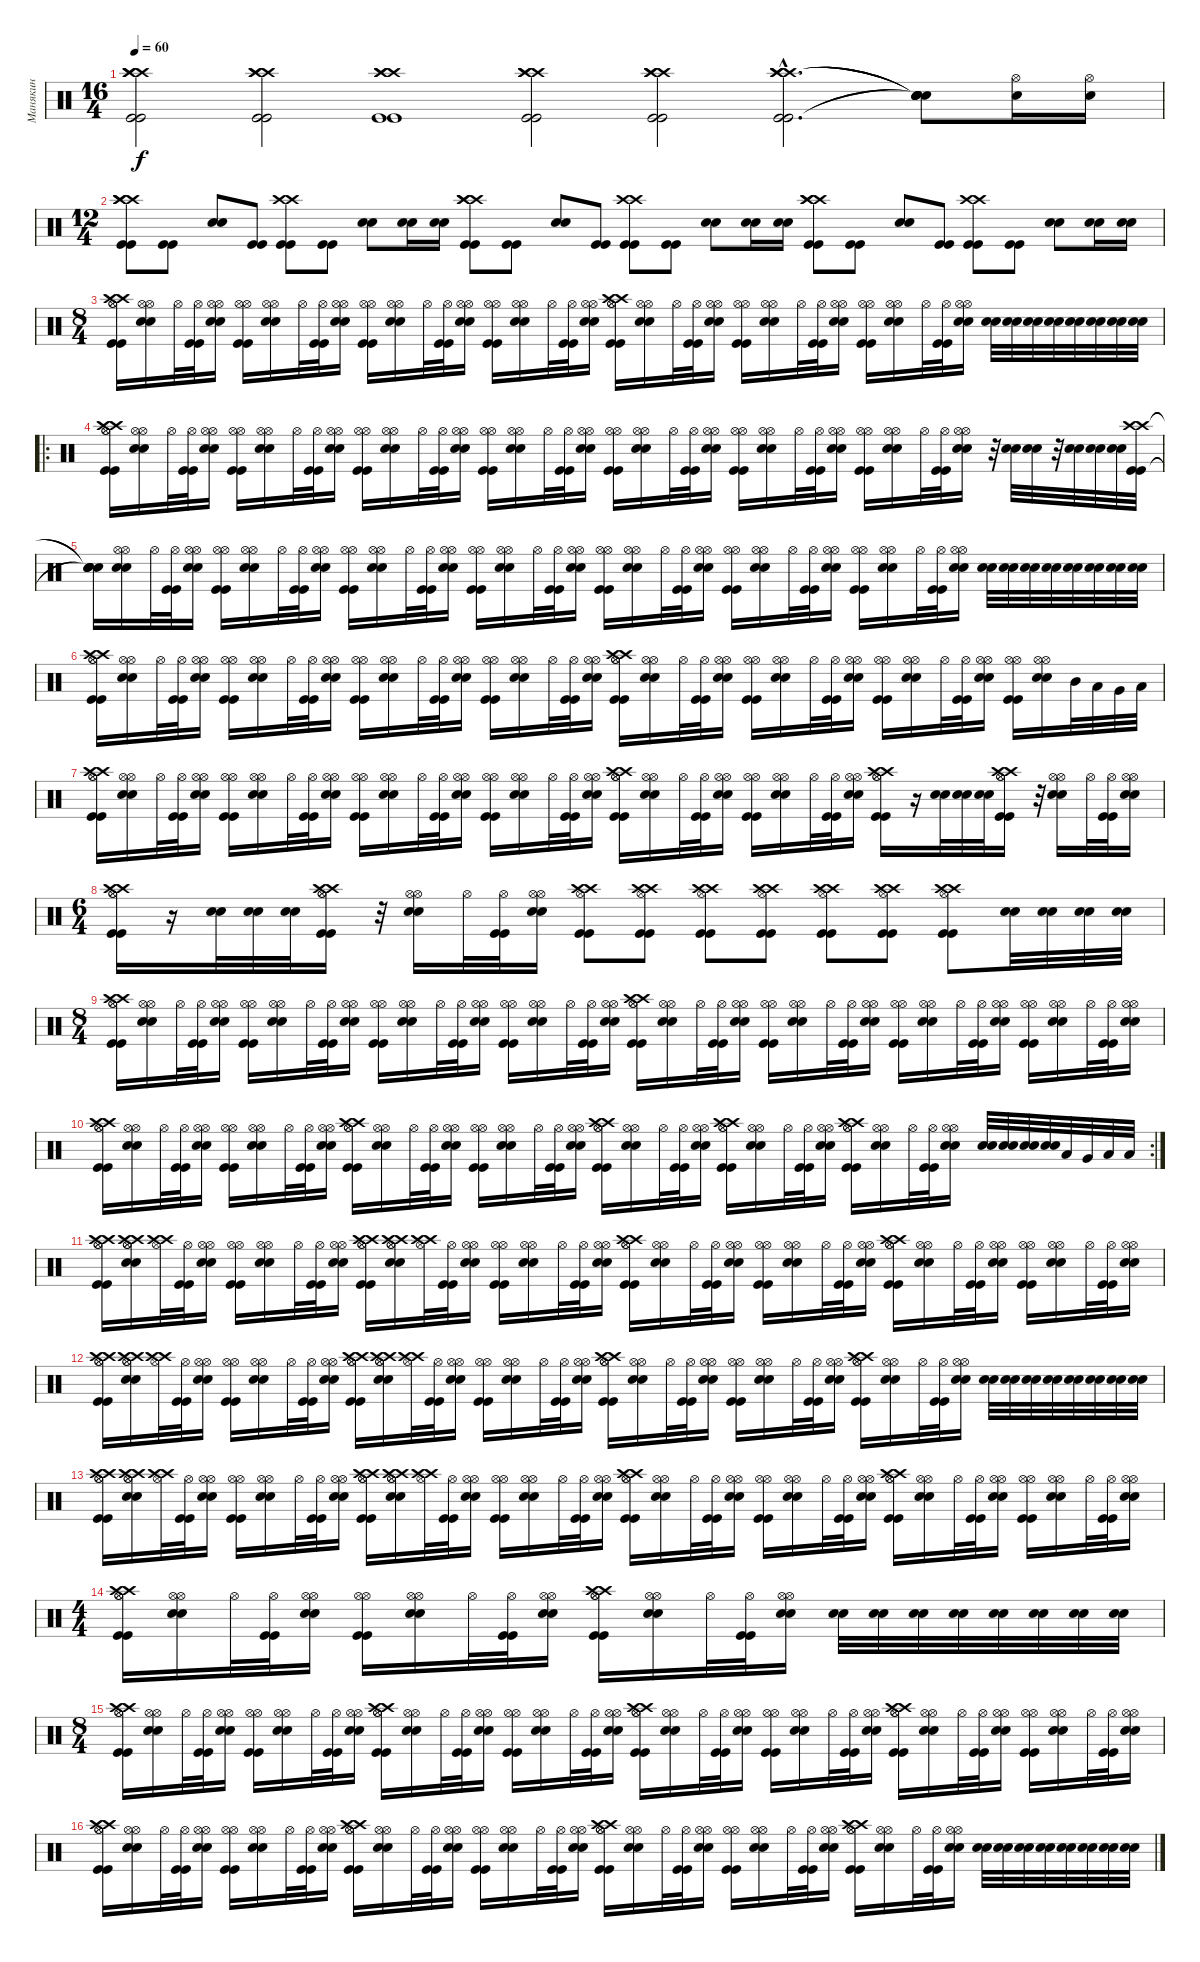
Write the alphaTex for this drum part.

\track ("Манякин" "Манякин") {instrument percussion}
\staff {score}
\articulation defaults
\ts (16 4)
\tempo 60
\clef neutral
\ks c
("Crash high (hit)" "Kick (hit)" "Kick (hit)" "Crash high (hit)" "Crash high (hit)").2{dy f} ("Crash high (hit)" "Kick (hit)" "Kick (hit)" "Crash high (hit)" "Crash high (hit)").2 ("Crash high (hit)" "Kick (hit)" "Kick (hit)" "Crash high (hit)" "Crash high (hit)").1 ("Crash high (hit)" "Kick (hit)" "Kick (hit)" "Crash high (hit)" "Crash high (hit)").2 ("Crash high (hit)" "Kick (hit)" "Kick (hit)" "Crash high (hit)" "Crash high (hit)").2 ("Crash high (hit)"{hac} "Kick (hit)"{hac} "Kick (hit)"{hac} "Crash high (hit)"{hac} "Crash high (hit)"{hac}).2{d} ("Snare (hit)"{t} "Snare (hit)"{t} "Snare (hit)"{t} "Snare (hit)"{t} "Snare (hit)"{t}).8 ("Electric Snare (hit)" "Hi-Hat (open)").16 ("Electric Snare (hit)" "Hi-Hat (open)").16 |
\ts (12 4)
("Kick (hit)" "Kick (hit)" "Crash high (hit)" "Crash high (hit)" "Crash high (hit)").8 ("Kick (hit)" "Kick (hit)").8 ("Electric Snare (hit)" "Electric Snare (hit)").8 ("Kick (hit)" "Kick (hit)").8 ("Kick (hit)" "Kick (hit)" "Crash high (hit)" "Crash high (hit)").8 ("Kick (hit)" "Kick (hit)").8 ("Electric Snare (hit)" "Electric Snare (hit)").8 ("Electric Snare (hit)" "Electric Snare (hit)").16 ("Electric Snare (hit)" "Electric Snare (hit)").16 ("Kick (hit)" "Kick (hit)" "Crash high (hit)" "Crash high (hit)" "Crash high (hit)").8 ("Kick (hit)" "Kick (hit)").8 ("Electric Snare (hit)" "Electric Snare (hit)").8 ("Kick (hit)" "Kick (hit)").8 ("Kick (hit)" "Kick (hit)" "Crash high (hit)" "Crash high (hit)").8 ("Kick (hit)" "Kick (hit)").8 ("Electric Snare (hit)" "Electric Snare (hit)").8 ("Electric Snare (hit)" "Electric Snare (hit)").16 ("Electric Snare (hit)" "Electric Snare (hit)").16 ("Kick (hit)" "Kick (hit)" "Crash high (hit)" "Crash high (hit)" "Crash high (hit)").8 ("Kick (hit)" "Kick (hit)").8 ("Electric Snare (hit)" "Electric Snare (hit)").8 ("Kick (hit)" "Kick (hit)").8 ("Kick (hit)" "Kick (hit)" "Crash high (hit)" "Crash high (hit)").8 ("Kick (hit)" "Kick (hit)").8 ("Electric Snare (hit)" "Electric Snare (hit)").8 ("Electric Snare (hit)" "Electric Snare (hit)").16 ("Electric Snare (hit)" "Electric Snare (hit)").16 |
\ts (8 4)
("Hi-Hat (open)" "Kick (hit)" "Kick (hit)" "Hi-Hat (open)" "Crash high (hit)" "Crash high (hit)").16 ("Hi-Hat (open)" "Electric Snare (hit)" "Electric Snare (hit)" "Hi-Hat (open)").16 "Hi-Hat (open)".32 ("Kick (hit)" "Kick (hit)" "Hi-Hat (open)").32 ("Hi-Hat (open)" "Electric Snare (hit)" "Electric Snare (hit)" "Hi-Hat (open)").16 ("Hi-Hat (open)" "Kick (hit)" "Kick (hit)" "Hi-Hat (open)").16 ("Hi-Hat (open)" "Electric Snare (hit)" "Electric Snare (hit)" "Hi-Hat (open)").16 "Hi-Hat (open)".32 ("Kick (hit)" "Kick (hit)" "Hi-Hat (open)").32 ("Hi-Hat (open)" "Electric Snare (hit)" "Electric Snare (hit)" "Hi-Hat (open)").16 ("Hi-Hat (open)" "Kick (hit)" "Kick (hit)" "Hi-Hat (open)").16 ("Hi-Hat (open)" "Electric Snare (hit)" "Electric Snare (hit)" "Hi-Hat (open)").16 "Hi-Hat (open)".32 ("Kick (hit)" "Kick (hit)" "Hi-Hat (open)").32 ("Hi-Hat (open)" "Electric Snare (hit)" "Electric Snare (hit)" "Hi-Hat (open)").16 ("Hi-Hat (open)" "Kick (hit)" "Kick (hit)" "Hi-Hat (open)").16 ("Hi-Hat (open)" "Electric Snare (hit)" "Electric Snare (hit)" "Hi-Hat (open)").16 "Hi-Hat (open)".32 ("Kick (hit)" "Kick (hit)" "Hi-Hat (open)").32 ("Hi-Hat (open)" "Electric Snare (hit)" "Electric Snare (hit)" "Hi-Hat (open)").16 ("Hi-Hat (open)" "Kick (hit)" "Kick (hit)" "Hi-Hat (open)" "Crash high (hit)" "Crash high (hit)").16 ("Hi-Hat (open)" "Electric Snare (hit)" "Electric Snare (hit)" "Hi-Hat (open)").16 "Hi-Hat (open)".32 ("Kick (hit)" "Kick (hit)" "Hi-Hat (open)").32 ("Hi-Hat (open)" "Electric Snare (hit)" "Electric Snare (hit)" "Hi-Hat (open)").16 ("Hi-Hat (open)" "Kick (hit)" "Kick (hit)" "Hi-Hat (open)").16 ("Hi-Hat (open)" "Electric Snare (hit)" "Electric Snare (hit)" "Hi-Hat (open)").16 "Hi-Hat (open)".32 ("Kick (hit)" "Kick (hit)" "Hi-Hat (open)").32 ("Hi-Hat (open)" "Electric Snare (hit)" "Electric Snare (hit)" "Hi-Hat (open)").16 ("Hi-Hat (open)" "Kick (hit)" "Kick (hit)" "Hi-Hat (open)").16 ("Hi-Hat (open)" "Electric Snare (hit)" "Electric Snare (hit)" "Hi-Hat (open)").16 "Hi-Hat (open)".32 ("Kick (hit)" "Kick (hit)" "Hi-Hat (open)").32 ("Hi-Hat (open)" "Electric Snare (hit)" "Electric Snare (hit)" "Hi-Hat (open)").16 ("Electric Snare (hit)" "Electric Snare (hit)").32 ("Electric Snare (hit)" "Electric Snare (hit)").32 ("Electric Snare (hit)" "Electric Snare (hit)").32 ("Electric Snare (hit)" "Electric Snare (hit)").32 ("Electric Snare (hit)" "Electric Snare (hit)").32 ("Electric Snare (hit)" "Electric Snare (hit)").32 ("Electric Snare (hit)" "Electric Snare (hit)").32 ("Electric Snare (hit)" "Electric Snare (hit)").32 |
\ro
("Hi-Hat (open)" "Kick (hit)" "Kick (hit)" "Hi-Hat (open)" "Crash high (hit)" "Crash high (hit)").16 ("Hi-Hat (open)" "Electric Snare (hit)" "Electric Snare (hit)" "Hi-Hat (open)").16 "Hi-Hat (open)".32 ("Kick (hit)" "Kick (hit)" "Hi-Hat (open)").32 ("Hi-Hat (open)" "Electric Snare (hit)" "Electric Snare (hit)" "Hi-Hat (open)").16 ("Hi-Hat (open)" "Kick (hit)" "Kick (hit)" "Hi-Hat (open)").16 ("Hi-Hat (open)" "Electric Snare (hit)" "Electric Snare (hit)" "Hi-Hat (open)").16 "Hi-Hat (open)".32 ("Kick (hit)" "Kick (hit)" "Hi-Hat (open)").32 ("Hi-Hat (open)" "Electric Snare (hit)" "Electric Snare (hit)" "Hi-Hat (open)").16 ("Hi-Hat (open)" "Kick (hit)" "Kick (hit)" "Hi-Hat (open)").16 ("Hi-Hat (open)" "Electric Snare (hit)" "Electric Snare (hit)" "Hi-Hat (open)").16 "Hi-Hat (open)".32 ("Kick (hit)" "Kick (hit)" "Hi-Hat (open)").32 ("Hi-Hat (open)" "Electric Snare (hit)" "Electric Snare (hit)" "Hi-Hat (open)").16 ("Hi-Hat (open)" "Kick (hit)" "Kick (hit)" "Hi-Hat (open)").16 ("Hi-Hat (open)" "Electric Snare (hit)" "Electric Snare (hit)" "Hi-Hat (open)").16 "Hi-Hat (open)".32 ("Kick (hit)" "Kick (hit)" "Hi-Hat (open)").32 ("Hi-Hat (open)" "Electric Snare (hit)" "Electric Snare (hit)" "Hi-Hat (open)").16 ("Hi-Hat (open)" "Kick (hit)" "Kick (hit)" "Hi-Hat (open)").16 ("Hi-Hat (open)" "Electric Snare (hit)" "Electric Snare (hit)" "Hi-Hat (open)").16 "Hi-Hat (open)".32 ("Kick (hit)" "Kick (hit)" "Hi-Hat (open)").32 ("Hi-Hat (open)" "Electric Snare (hit)" "Electric Snare (hit)" "Hi-Hat (open)").16 ("Hi-Hat (open)" "Kick (hit)" "Kick (hit)" "Hi-Hat (open)").16 ("Hi-Hat (open)" "Electric Snare (hit)" "Electric Snare (hit)" "Hi-Hat (open)").16 "Hi-Hat (open)".32 ("Kick (hit)" "Kick (hit)" "Hi-Hat (open)").32 ("Hi-Hat (open)" "Electric Snare (hit)" "Electric Snare (hit)" "Hi-Hat (open)").16 ("Hi-Hat (open)" "Kick (hit)" "Kick (hit)" "Hi-Hat (open)").16 ("Hi-Hat (open)" "Electric Snare (hit)" "Electric Snare (hit)" "Hi-Hat (open)").16 "Hi-Hat (open)".32 ("Kick (hit)" "Kick (hit)" "Hi-Hat (open)").32 ("Hi-Hat (open)" "Electric Snare (hit)" "Electric Snare (hit)" "Hi-Hat (open)").16 r.32 ("Electric Snare (hit)" "Electric Snare (hit)").32 ("Electric Snare (hit)" "Electric Snare (hit)").32 r.32 ("Electric Snare (hit)" "Electric Snare (hit)").32 ("Electric Snare (hit)" "Electric Snare (hit)").32 ("Electric Snare (hit)" "Electric Snare (hit)").32 ("Kick (hit)" "Kick (hit)" "Crash high (hit)" "Crash high (hit)").32 |
("Snare (hit)"{t} "Snare (hit)"{t} "Snare (hit)"{t} "Snare (hit)"{t}).16 ("Hi-Hat (open)" "Electric Snare (hit)" "Electric Snare (hit)" "Hi-Hat (open)").16 "Hi-Hat (open)".32 ("Kick (hit)" "Kick (hit)" "Hi-Hat (open)").32 ("Hi-Hat (open)" "Electric Snare (hit)" "Electric Snare (hit)" "Hi-Hat (open)").16 ("Hi-Hat (open)" "Kick (hit)" "Kick (hit)" "Hi-Hat (open)").16 ("Hi-Hat (open)" "Electric Snare (hit)" "Electric Snare (hit)" "Hi-Hat (open)").16 "Hi-Hat (open)".32 ("Kick (hit)" "Kick (hit)" "Hi-Hat (open)").32 ("Hi-Hat (open)" "Electric Snare (hit)" "Electric Snare (hit)" "Hi-Hat (open)").16 ("Hi-Hat (open)" "Kick (hit)" "Kick (hit)" "Hi-Hat (open)").16 ("Hi-Hat (open)" "Electric Snare (hit)" "Electric Snare (hit)" "Hi-Hat (open)").16 "Hi-Hat (open)".32 ("Kick (hit)" "Kick (hit)" "Hi-Hat (open)").32 ("Hi-Hat (open)" "Electric Snare (hit)" "Electric Snare (hit)" "Hi-Hat (open)").16 ("Hi-Hat (open)" "Kick (hit)" "Kick (hit)" "Hi-Hat (open)").16 ("Hi-Hat (open)" "Electric Snare (hit)" "Electric Snare (hit)" "Hi-Hat (open)").16 "Hi-Hat (open)".32 ("Kick (hit)" "Kick (hit)" "Hi-Hat (open)").32 ("Hi-Hat (open)" "Electric Snare (hit)" "Electric Snare (hit)" "Hi-Hat (open)").16 ("Hi-Hat (open)" "Kick (hit)" "Kick (hit)" "Hi-Hat (open)").16 ("Hi-Hat (open)" "Electric Snare (hit)" "Electric Snare (hit)" "Hi-Hat (open)").16 "Hi-Hat (open)".32 ("Kick (hit)" "Kick (hit)" "Hi-Hat (open)").32 ("Hi-Hat (open)" "Electric Snare (hit)" "Electric Snare (hit)" "Hi-Hat (open)").16 ("Hi-Hat (open)" "Kick (hit)" "Kick (hit)" "Hi-Hat (open)").16 ("Hi-Hat (open)" "Electric Snare (hit)" "Electric Snare (hit)" "Hi-Hat (open)").16 "Hi-Hat (open)".32 ("Kick (hit)" "Kick (hit)" "Hi-Hat (open)").32 ("Hi-Hat (open)" "Electric Snare (hit)" "Electric Snare (hit)" "Hi-Hat (open)").16 ("Hi-Hat (open)" "Kick (hit)" "Kick (hit)" "Hi-Hat (open)").16 ("Hi-Hat (open)" "Electric Snare (hit)" "Electric Snare (hit)" "Hi-Hat (open)").16 "Hi-Hat (open)".32 ("Kick (hit)" "Kick (hit)" "Hi-Hat (open)").32 ("Hi-Hat (open)" "Electric Snare (hit)" "Electric Snare (hit)" "Hi-Hat (open)").16 ("Electric Snare (hit)" "Electric Snare (hit)").32 ("Electric Snare (hit)" "Electric Snare (hit)").32 ("Electric Snare (hit)" "Electric Snare (hit)").32 ("Electric Snare (hit)" "Electric Snare (hit)").32 ("Electric Snare (hit)" "Electric Snare (hit)").32 ("Electric Snare (hit)" "Electric Snare (hit)").32 ("Electric Snare (hit)" "Electric Snare (hit)").32 ("Electric Snare (hit)" "Electric Snare (hit)").32 |
("Hi-Hat (open)" "Kick (hit)" "Kick (hit)" "Hi-Hat (open)" "Crash high (hit)" "Crash high (hit)").16 ("Hi-Hat (open)" "Electric Snare (hit)" "Electric Snare (hit)" "Hi-Hat (open)").16 "Hi-Hat (open)".32 ("Kick (hit)" "Kick (hit)" "Hi-Hat (open)").32 ("Hi-Hat (open)" "Electric Snare (hit)" "Electric Snare (hit)" "Hi-Hat (open)").16 ("Hi-Hat (open)" "Kick (hit)" "Kick (hit)" "Hi-Hat (open)").16 ("Hi-Hat (open)" "Electric Snare (hit)" "Electric Snare (hit)" "Hi-Hat (open)").16 "Hi-Hat (open)".32 ("Kick (hit)" "Kick (hit)" "Hi-Hat (open)").32 ("Hi-Hat (open)" "Electric Snare (hit)" "Electric Snare (hit)" "Hi-Hat (open)").16 ("Hi-Hat (open)" "Kick (hit)" "Kick (hit)" "Hi-Hat (open)").16 ("Hi-Hat (open)" "Electric Snare (hit)" "Electric Snare (hit)" "Hi-Hat (open)").16 "Hi-Hat (open)".32 ("Kick (hit)" "Kick (hit)" "Hi-Hat (open)").32 ("Hi-Hat (open)" "Electric Snare (hit)" "Electric Snare (hit)" "Hi-Hat (open)").16 ("Hi-Hat (open)" "Kick (hit)" "Kick (hit)" "Hi-Hat (open)").16 ("Hi-Hat (open)" "Electric Snare (hit)" "Electric Snare (hit)" "Hi-Hat (open)").16 "Hi-Hat (open)".32 ("Kick (hit)" "Kick (hit)" "Hi-Hat (open)").32 ("Hi-Hat (open)" "Electric Snare (hit)" "Electric Snare (hit)" "Hi-Hat (open)").16 ("Hi-Hat (open)" "Kick (hit)" "Kick (hit)" "Hi-Hat (open)" "Crash high (hit)" "Crash high (hit)").16 ("Hi-Hat (open)" "Electric Snare (hit)" "Electric Snare (hit)" "Hi-Hat (open)").16 "Hi-Hat (open)".32 ("Kick (hit)" "Kick (hit)" "Hi-Hat (open)").32 ("Hi-Hat (open)" "Electric Snare (hit)" "Electric Snare (hit)" "Hi-Hat (open)").16 ("Hi-Hat (open)" "Kick (hit)" "Kick (hit)" "Hi-Hat (open)").16 ("Hi-Hat (open)" "Electric Snare (hit)" "Electric Snare (hit)" "Hi-Hat (open)").16 "Hi-Hat (open)".32 ("Kick (hit)" "Kick (hit)" "Hi-Hat (open)").32 ("Hi-Hat (open)" "Electric Snare (hit)" "Electric Snare (hit)" "Hi-Hat (open)").16 ("Hi-Hat (open)" "Kick (hit)" "Kick (hit)" "Hi-Hat (open)").16 ("Hi-Hat (open)" "Electric Snare (hit)" "Electric Snare (hit)" "Hi-Hat (open)").16 "Hi-Hat (open)".32 ("Kick (hit)" "Kick (hit)" "Hi-Hat (open)").32 ("Hi-Hat (open)" "Electric Snare (hit)" "Electric Snare (hit)" "Hi-Hat (open)").16 ("Hi-Hat (open)" "Kick (hit)" "Kick (hit)" "Hi-Hat (open)").16 ("Hi-Hat (open)" "Electric Snare (hit)" "Electric Snare (hit)" "Hi-Hat (open)").16 "Mid Tom (hit)".32 "Low Tom (hit)".32 "Very Low Tom (hit)".32 "Low Floor Tom (hit)".32 |
("Hi-Hat (open)" "Kick (hit)" "Kick (hit)" "Hi-Hat (open)" "Crash high (hit)" "Crash high (hit)").16 ("Hi-Hat (open)" "Electric Snare (hit)" "Electric Snare (hit)" "Hi-Hat (open)").16 "Hi-Hat (open)".32 ("Kick (hit)" "Kick (hit)" "Hi-Hat (open)").32 ("Hi-Hat (open)" "Electric Snare (hit)" "Electric Snare (hit)" "Hi-Hat (open)").16 ("Hi-Hat (open)" "Kick (hit)" "Kick (hit)" "Hi-Hat (open)").16 ("Hi-Hat (open)" "Electric Snare (hit)" "Electric Snare (hit)" "Hi-Hat (open)").16 "Hi-Hat (open)".32 ("Kick (hit)" "Kick (hit)" "Hi-Hat (open)").32 ("Hi-Hat (open)" "Electric Snare (hit)" "Electric Snare (hit)" "Hi-Hat (open)").16 ("Hi-Hat (open)" "Kick (hit)" "Kick (hit)" "Hi-Hat (open)").16 ("Hi-Hat (open)" "Electric Snare (hit)" "Electric Snare (hit)" "Hi-Hat (open)").16 "Hi-Hat (open)".32 ("Kick (hit)" "Kick (hit)" "Hi-Hat (open)").32 ("Hi-Hat (open)" "Electric Snare (hit)" "Electric Snare (hit)" "Hi-Hat (open)").16 ("Hi-Hat (open)" "Kick (hit)" "Kick (hit)" "Hi-Hat (open)").16 ("Hi-Hat (open)" "Electric Snare (hit)" "Electric Snare (hit)" "Hi-Hat (open)").16 "Hi-Hat (open)".32 ("Kick (hit)" "Kick (hit)" "Hi-Hat (open)").32 ("Hi-Hat (open)" "Electric Snare (hit)" "Electric Snare (hit)" "Hi-Hat (open)").16 ("Hi-Hat (open)" "Kick (hit)" "Kick (hit)" "Hi-Hat (open)" "Crash high (hit)" "Crash high (hit)").16 ("Hi-Hat (open)" "Electric Snare (hit)" "Electric Snare (hit)" "Hi-Hat (open)").16 "Hi-Hat (open)".32 ("Kick (hit)" "Kick (hit)" "Hi-Hat (open)").32 ("Hi-Hat (open)" "Electric Snare (hit)" "Electric Snare (hit)" "Hi-Hat (open)").16 ("Hi-Hat (open)" "Kick (hit)" "Kick (hit)" "Hi-Hat (open)").16 ("Hi-Hat (open)" "Electric Snare (hit)" "Electric Snare (hit)" "Hi-Hat (open)").16 "Hi-Hat (open)".32 ("Kick (hit)" "Kick (hit)" "Hi-Hat (open)").32 ("Hi-Hat (open)" "Electric Snare (hit)" "Electric Snare (hit)" "Hi-Hat (open)").16 ("Hi-Hat (open)" "Kick (hit)" "Kick (hit)" "Hi-Hat (open)" "Crash high (hit)" "Crash high (hit)").16 r.16 ("Electric Snare (hit)" "Electric Snare (hit)").32 ("Electric Snare (hit)" "Electric Snare (hit)").32 ("Electric Snare (hit)" "Electric Snare (hit)").32 ("Hi-Hat (open)" "Kick (hit)" "Kick (hit)" "Hi-Hat (open)" "Crash high (hit)" "Crash high (hit)").16 r.32 ("Hi-Hat (open)" "Electric Snare (hit)" "Electric Snare (hit)" "Hi-Hat (open)").16 "Hi-Hat (open)".32 ("Kick (hit)" "Kick (hit)" "Hi-Hat (open)").32 ("Hi-Hat (open)" "Electric Snare (hit)" "Electric Snare (hit)" "Hi-Hat (open)").16 |
\ts (6 4)
("Hi-Hat (open)" "Kick (hit)" "Kick (hit)" "Hi-Hat (open)" "Crash high (hit)" "Crash high (hit)").16 r.16 ("Electric Snare (hit)" "Electric Snare (hit)").32 ("Electric Snare (hit)" "Electric Snare (hit)").32 ("Electric Snare (hit)" "Electric Snare (hit)").32 ("Hi-Hat (open)" "Kick (hit)" "Kick (hit)" "Hi-Hat (open)" "Crash high (hit)" "Crash high (hit)").16 r.32 ("Hi-Hat (open)" "Electric Snare (hit)" "Electric Snare (hit)" "Hi-Hat (open)").16 "Hi-Hat (open)".32 ("Kick (hit)" "Kick (hit)" "Hi-Hat (open)").32 ("Hi-Hat (open)" "Electric Snare (hit)" "Electric Snare (hit)" "Hi-Hat (open)").16 ("Crash high (hit)" "Crash high (hit)" "Kick (hit)" "Kick (hit)" "Hi-Hat (open)").8 ("Crash high (hit)" "Crash high (hit)" "Kick (hit)" "Kick (hit)" "Hi-Hat (open)").8 ("Crash high (hit)" "Crash high (hit)" "Kick (hit)" "Kick (hit)" "Hi-Hat (open)").8 ("Crash high (hit)" "Crash high (hit)" "Kick (hit)" "Kick (hit)" "Hi-Hat (open)").8 ("Crash high (hit)" "Crash high (hit)" "Kick (hit)" "Kick (hit)" "Hi-Hat (open)").8 ("Crash high (hit)" "Crash high (hit)" "Kick (hit)" "Kick (hit)" "Hi-Hat (open)").8 ("Crash high (hit)" "Crash high (hit)" "Kick (hit)" "Kick (hit)" "Hi-Hat (open)").8 ("Electric Snare (hit)" "Electric Snare (hit)").32 ("Electric Snare (hit)" "Electric Snare (hit)").32 ("Electric Snare (hit)" "Electric Snare (hit)").32 ("Electric Snare (hit)" "Electric Snare (hit)").32 |
\ts (8 4)
("Hi-Hat (open)" "Kick (hit)" "Kick (hit)" "Hi-Hat (open)" "Crash high (hit)" "Crash high (hit)").16 ("Hi-Hat (open)" "Electric Snare (hit)" "Electric Snare (hit)" "Hi-Hat (open)").16 "Hi-Hat (open)".32 ("Kick (hit)" "Kick (hit)" "Hi-Hat (open)").32 ("Hi-Hat (open)" "Electric Snare (hit)" "Electric Snare (hit)" "Hi-Hat (open)").16 ("Hi-Hat (open)" "Kick (hit)" "Kick (hit)" "Hi-Hat (open)").16 ("Hi-Hat (open)" "Electric Snare (hit)" "Electric Snare (hit)" "Hi-Hat (open)").16 "Hi-Hat (open)".32 ("Kick (hit)" "Kick (hit)" "Hi-Hat (open)").32 ("Hi-Hat (open)" "Electric Snare (hit)" "Electric Snare (hit)" "Hi-Hat (open)").16 ("Hi-Hat (open)" "Kick (hit)" "Kick (hit)" "Hi-Hat (open)").16 ("Hi-Hat (open)" "Electric Snare (hit)" "Electric Snare (hit)" "Hi-Hat (open)").16 "Hi-Hat (open)".32 ("Kick (hit)" "Kick (hit)" "Hi-Hat (open)").32 ("Hi-Hat (open)" "Electric Snare (hit)" "Electric Snare (hit)" "Hi-Hat (open)").16 ("Hi-Hat (open)" "Kick (hit)" "Kick (hit)" "Hi-Hat (open)").16 ("Hi-Hat (open)" "Electric Snare (hit)" "Electric Snare (hit)" "Hi-Hat (open)").16 "Hi-Hat (open)".32 ("Kick (hit)" "Kick (hit)" "Hi-Hat (open)").32 ("Hi-Hat (open)" "Electric Snare (hit)" "Electric Snare (hit)" "Hi-Hat (open)").16 ("Hi-Hat (open)" "Kick (hit)" "Kick (hit)" "Hi-Hat (open)" "Crash high (hit)" "Crash high (hit)").16 ("Hi-Hat (open)" "Electric Snare (hit)" "Electric Snare (hit)" "Hi-Hat (open)").16 "Hi-Hat (open)".32 ("Kick (hit)" "Kick (hit)" "Hi-Hat (open)").32 ("Hi-Hat (open)" "Electric Snare (hit)" "Electric Snare (hit)" "Hi-Hat (open)").16 ("Hi-Hat (open)" "Kick (hit)" "Kick (hit)" "Hi-Hat (open)").16 ("Hi-Hat (open)" "Electric Snare (hit)" "Electric Snare (hit)" "Hi-Hat (open)").16 "Hi-Hat (open)".32 ("Kick (hit)" "Kick (hit)" "Hi-Hat (open)").32 ("Hi-Hat (open)" "Electric Snare (hit)" "Electric Snare (hit)" "Hi-Hat (open)").16 ("Hi-Hat (open)" "Kick (hit)" "Kick (hit)" "Hi-Hat (open)").16 ("Hi-Hat (open)" "Electric Snare (hit)" "Electric Snare (hit)" "Hi-Hat (open)").16 "Hi-Hat (open)".32 ("Kick (hit)" "Kick (hit)" "Hi-Hat (open)").32 ("Hi-Hat (open)" "Electric Snare (hit)" "Electric Snare (hit)" "Hi-Hat (open)").16 ("Hi-Hat (open)" "Kick (hit)" "Kick (hit)" "Hi-Hat (open)").16 ("Hi-Hat (open)" "Electric Snare (hit)" "Electric Snare (hit)" "Hi-Hat (open)").16 "Hi-Hat (open)".32 ("Kick (hit)" "Kick (hit)" "Hi-Hat (open)").32 ("Hi-Hat (open)" "Electric Snare (hit)" "Electric Snare (hit)" "Hi-Hat (open)").16 |
\rc 2
("Hi-Hat (open)" "Kick (hit)" "Kick (hit)" "Hi-Hat (open)" "Crash high (hit)" "Crash high (hit)").16 ("Hi-Hat (open)" "Electric Snare (hit)" "Electric Snare (hit)" "Hi-Hat (open)").16 "Hi-Hat (open)".32 ("Kick (hit)" "Kick (hit)" "Hi-Hat (open)").32 ("Hi-Hat (open)" "Electric Snare (hit)" "Electric Snare (hit)" "Hi-Hat (open)").16 ("Hi-Hat (open)" "Kick (hit)" "Kick (hit)" "Hi-Hat (open)").16 ("Hi-Hat (open)" "Electric Snare (hit)" "Electric Snare (hit)" "Hi-Hat (open)").16 "Hi-Hat (open)".32 ("Kick (hit)" "Kick (hit)" "Hi-Hat (open)").32 ("Hi-Hat (open)" "Electric Snare (hit)" "Electric Snare (hit)" "Hi-Hat (open)").16 ("Hi-Hat (open)" "Kick (hit)" "Kick (hit)" "Hi-Hat (open)" "Crash high (hit)" "Crash high (hit)").16 ("Hi-Hat (open)" "Electric Snare (hit)" "Electric Snare (hit)" "Hi-Hat (open)").16 "Hi-Hat (open)".32 ("Kick (hit)" "Kick (hit)" "Hi-Hat (open)").32 ("Hi-Hat (open)" "Electric Snare (hit)" "Electric Snare (hit)" "Hi-Hat (open)").16 ("Hi-Hat (open)" "Kick (hit)" "Kick (hit)" "Hi-Hat (open)").16 ("Hi-Hat (open)" "Electric Snare (hit)" "Electric Snare (hit)" "Hi-Hat (open)").16 "Hi-Hat (open)".32 ("Kick (hit)" "Kick (hit)" "Hi-Hat (open)").32 ("Hi-Hat (open)" "Electric Snare (hit)" "Electric Snare (hit)" "Hi-Hat (open)").16 ("Hi-Hat (open)" "Kick (hit)" "Kick (hit)" "Hi-Hat (open)" "Crash high (hit)" "Crash high (hit)").16 ("Hi-Hat (open)" "Electric Snare (hit)" "Electric Snare (hit)" "Hi-Hat (open)").16 "Hi-Hat (open)".32 ("Kick (hit)" "Kick (hit)" "Hi-Hat (open)").32 ("Hi-Hat (open)" "Electric Snare (hit)" "Electric Snare (hit)" "Hi-Hat (open)").16 ("Hi-Hat (open)" "Kick (hit)" "Kick (hit)" "Hi-Hat (open)" "Crash high (hit)" "Crash high (hit)").16 ("Hi-Hat (open)" "Electric Snare (hit)" "Electric Snare (hit)" "Hi-Hat (open)").16 "Hi-Hat (open)".32 ("Kick (hit)" "Kick (hit)" "Hi-Hat (open)").32 ("Hi-Hat (open)" "Electric Snare (hit)" "Electric Snare (hit)" "Hi-Hat (open)").16 ("Hi-Hat (open)" "Kick (hit)" "Kick (hit)" "Hi-Hat (open)" "Crash high (hit)" "Crash high (hit)").16 ("Hi-Hat (open)" "Electric Snare (hit)" "Electric Snare (hit)" "Hi-Hat (open)").16 "Hi-Hat (open)".32 ("Kick (hit)" "Kick (hit)" "Hi-Hat (open)").32 ("Hi-Hat (open)" "Electric Snare (hit)" "Electric Snare (hit)" "Hi-Hat (open)").16 ("Electric Snare (hit)" "Electric Snare (hit)").32 ("Electric Snare (hit)" "Electric Snare (hit)").32 ("Electric Snare (hit)" "Electric Snare (hit)").32 ("Electric Snare (hit)" "Electric Snare (hit)").32 "Low Tom (hit)".32 "Very Low Tom (hit)".32 "Low Floor Tom (hit)".32 "Low Floor Tom (hit)".32 |
("Hi-Hat (open)" "Kick (hit)" "Kick (hit)" "Hi-Hat (open)" "Crash high (hit)" "Crash high (hit)").16 ("Hi-Hat (open)" "Electric Snare (hit)" "Electric Snare (hit)" "Hi-Hat (open)" "Crash high (hit)" "Crash high (hit)").16 ("Hi-Hat (open)" "Crash high (hit)" "Crash high (hit)").32 ("Kick (hit)" "Kick (hit)" "Hi-Hat (open)").32 ("Hi-Hat (open)" "Electric Snare (hit)" "Electric Snare (hit)" "Hi-Hat (open)").16 ("Hi-Hat (open)" "Kick (hit)" "Kick (hit)" "Hi-Hat (open)").16 ("Hi-Hat (open)" "Electric Snare (hit)" "Electric Snare (hit)" "Hi-Hat (open)").16 "Hi-Hat (open)".32 ("Kick (hit)" "Kick (hit)" "Hi-Hat (open)").32 ("Hi-Hat (open)" "Electric Snare (hit)" "Electric Snare (hit)" "Hi-Hat (open)").16 ("Hi-Hat (open)" "Kick (hit)" "Kick (hit)" "Hi-Hat (open)" "Crash high (hit)" "Crash high (hit)").16 ("Hi-Hat (open)" "Electric Snare (hit)" "Electric Snare (hit)" "Hi-Hat (open)" "Crash high (hit)" "Crash high (hit)").16 ("Hi-Hat (open)" "Crash high (hit)" "Crash high (hit)").32 ("Kick (hit)" "Kick (hit)" "Hi-Hat (open)").32 ("Hi-Hat (open)" "Electric Snare (hit)" "Electric Snare (hit)" "Hi-Hat (open)").16 ("Hi-Hat (open)" "Kick (hit)" "Kick (hit)" "Hi-Hat (open)").16 ("Hi-Hat (open)" "Electric Snare (hit)" "Electric Snare (hit)" "Hi-Hat (open)").16 "Hi-Hat (open)".32 ("Kick (hit)" "Kick (hit)" "Hi-Hat (open)").32 ("Hi-Hat (open)" "Electric Snare (hit)" "Electric Snare (hit)" "Hi-Hat (open)").16 ("Hi-Hat (open)" "Kick (hit)" "Kick (hit)" "Hi-Hat (open)" "Crash high (hit)" "Crash high (hit)").16 ("Hi-Hat (open)" "Electric Snare (hit)" "Electric Snare (hit)" "Hi-Hat (open)").16 "Hi-Hat (open)".32 ("Kick (hit)" "Kick (hit)" "Hi-Hat (open)").32 ("Hi-Hat (open)" "Electric Snare (hit)" "Electric Snare (hit)" "Hi-Hat (open)").16 ("Hi-Hat (open)" "Kick (hit)" "Kick (hit)" "Hi-Hat (open)").16 ("Hi-Hat (open)" "Electric Snare (hit)" "Electric Snare (hit)" "Hi-Hat (open)").16 "Hi-Hat (open)".32 ("Kick (hit)" "Kick (hit)" "Hi-Hat (open)").32 ("Hi-Hat (open)" "Electric Snare (hit)" "Electric Snare (hit)" "Hi-Hat (open)").16 ("Hi-Hat (open)" "Kick (hit)" "Kick (hit)" "Hi-Hat (open)" "Crash high (hit)" "Crash high (hit)").16 ("Hi-Hat (open)" "Electric Snare (hit)" "Electric Snare (hit)" "Hi-Hat (open)").16 "Hi-Hat (open)".32 ("Kick (hit)" "Kick (hit)" "Hi-Hat (open)").32 ("Hi-Hat (open)" "Electric Snare (hit)" "Electric Snare (hit)" "Hi-Hat (open)").16 ("Hi-Hat (open)" "Kick (hit)" "Kick (hit)" "Hi-Hat (open)").16 ("Hi-Hat (open)" "Electric Snare (hit)" "Electric Snare (hit)" "Hi-Hat (open)").16 "Hi-Hat (open)".32 ("Kick (hit)" "Kick (hit)" "Hi-Hat (open)").32 ("Hi-Hat (open)" "Electric Snare (hit)" "Electric Snare (hit)" "Hi-Hat (open)").16 |
("Hi-Hat (open)" "Kick (hit)" "Kick (hit)" "Hi-Hat (open)" "Crash high (hit)" "Crash high (hit)").16 ("Hi-Hat (open)" "Electric Snare (hit)" "Electric Snare (hit)" "Hi-Hat (open)" "Crash high (hit)" "Crash high (hit)").16 ("Hi-Hat (open)" "Crash high (hit)" "Crash high (hit)").32 ("Kick (hit)" "Kick (hit)" "Hi-Hat (open)").32 ("Hi-Hat (open)" "Electric Snare (hit)" "Electric Snare (hit)" "Hi-Hat (open)").16 ("Hi-Hat (open)" "Kick (hit)" "Kick (hit)" "Hi-Hat (open)").16 ("Hi-Hat (open)" "Electric Snare (hit)" "Electric Snare (hit)" "Hi-Hat (open)").16 "Hi-Hat (open)".32 ("Kick (hit)" "Kick (hit)" "Hi-Hat (open)").32 ("Hi-Hat (open)" "Electric Snare (hit)" "Electric Snare (hit)" "Hi-Hat (open)").16 ("Hi-Hat (open)" "Kick (hit)" "Kick (hit)" "Hi-Hat (open)" "Crash high (hit)" "Crash high (hit)").16 ("Hi-Hat (open)" "Electric Snare (hit)" "Electric Snare (hit)" "Hi-Hat (open)" "Crash high (hit)" "Crash high (hit)").16 ("Hi-Hat (open)" "Crash high (hit)" "Crash high (hit)").32 ("Kick (hit)" "Kick (hit)" "Hi-Hat (open)").32 ("Hi-Hat (open)" "Electric Snare (hit)" "Electric Snare (hit)" "Hi-Hat (open)").16 ("Hi-Hat (open)" "Kick (hit)" "Kick (hit)" "Hi-Hat (open)").16 ("Hi-Hat (open)" "Electric Snare (hit)" "Electric Snare (hit)" "Hi-Hat (open)").16 "Hi-Hat (open)".32 ("Kick (hit)" "Kick (hit)" "Hi-Hat (open)").32 ("Hi-Hat (open)" "Electric Snare (hit)" "Electric Snare (hit)" "Hi-Hat (open)").16 ("Hi-Hat (open)" "Kick (hit)" "Kick (hit)" "Hi-Hat (open)" "Crash high (hit)" "Crash high (hit)").16 ("Hi-Hat (open)" "Electric Snare (hit)" "Electric Snare (hit)" "Hi-Hat (open)").16 "Hi-Hat (open)".32 ("Kick (hit)" "Kick (hit)" "Hi-Hat (open)").32 ("Hi-Hat (open)" "Electric Snare (hit)" "Electric Snare (hit)" "Hi-Hat (open)").16 ("Hi-Hat (open)" "Kick (hit)" "Kick (hit)" "Hi-Hat (open)").16 ("Hi-Hat (open)" "Electric Snare (hit)" "Electric Snare (hit)" "Hi-Hat (open)").16 "Hi-Hat (open)".32 ("Kick (hit)" "Kick (hit)" "Hi-Hat (open)").32 ("Hi-Hat (open)" "Electric Snare (hit)" "Electric Snare (hit)" "Hi-Hat (open)").16 ("Hi-Hat (open)" "Kick (hit)" "Kick (hit)" "Hi-Hat (open)" "Crash high (hit)" "Crash high (hit)").16 ("Hi-Hat (open)" "Electric Snare (hit)" "Electric Snare (hit)" "Hi-Hat (open)").16 "Hi-Hat (open)".32 ("Kick (hit)" "Kick (hit)" "Hi-Hat (open)").32 ("Hi-Hat (open)" "Electric Snare (hit)" "Electric Snare (hit)" "Hi-Hat (open)").16 ("Electric Snare (hit)" "Electric Snare (hit)").32 ("Electric Snare (hit)" "Electric Snare (hit)").32 ("Electric Snare (hit)" "Electric Snare (hit)").32 ("Electric Snare (hit)" "Electric Snare (hit)").32 ("Electric Snare (hit)" "Electric Snare (hit)").32 ("Electric Snare (hit)" "Electric Snare (hit)").32 ("Electric Snare (hit)" "Electric Snare (hit)").32 ("Electric Snare (hit)" "Electric Snare (hit)").32 |
("Hi-Hat (open)" "Kick (hit)" "Kick (hit)" "Hi-Hat (open)" "Crash high (hit)" "Crash high (hit)").16 ("Hi-Hat (open)" "Electric Snare (hit)" "Electric Snare (hit)" "Hi-Hat (open)" "Crash high (hit)" "Crash high (hit)").16 ("Hi-Hat (open)" "Crash high (hit)" "Crash high (hit)").32 ("Kick (hit)" "Kick (hit)" "Hi-Hat (open)").32 ("Hi-Hat (open)" "Electric Snare (hit)" "Electric Snare (hit)" "Hi-Hat (open)").16 ("Hi-Hat (open)" "Kick (hit)" "Kick (hit)" "Hi-Hat (open)").16 ("Hi-Hat (open)" "Electric Snare (hit)" "Electric Snare (hit)" "Hi-Hat (open)").16 "Hi-Hat (open)".32 ("Kick (hit)" "Kick (hit)" "Hi-Hat (open)").32 ("Hi-Hat (open)" "Electric Snare (hit)" "Electric Snare (hit)" "Hi-Hat (open)").16 ("Hi-Hat (open)" "Kick (hit)" "Kick (hit)" "Hi-Hat (open)" "Crash high (hit)" "Crash high (hit)").16 ("Hi-Hat (open)" "Electric Snare (hit)" "Electric Snare (hit)" "Hi-Hat (open)" "Crash high (hit)" "Crash high (hit)").16 ("Hi-Hat (open)" "Crash high (hit)" "Crash high (hit)").32 ("Kick (hit)" "Kick (hit)" "Hi-Hat (open)").32 ("Hi-Hat (open)" "Electric Snare (hit)" "Electric Snare (hit)" "Hi-Hat (open)").16 ("Hi-Hat (open)" "Kick (hit)" "Kick (hit)" "Hi-Hat (open)").16 ("Hi-Hat (open)" "Electric Snare (hit)" "Electric Snare (hit)" "Hi-Hat (open)").16 "Hi-Hat (open)".32 ("Kick (hit)" "Kick (hit)" "Hi-Hat (open)").32 ("Hi-Hat (open)" "Electric Snare (hit)" "Electric Snare (hit)" "Hi-Hat (open)").16 ("Hi-Hat (open)" "Kick (hit)" "Kick (hit)" "Hi-Hat (open)" "Crash high (hit)" "Crash high (hit)").16 ("Hi-Hat (open)" "Electric Snare (hit)" "Electric Snare (hit)" "Hi-Hat (open)").16 "Hi-Hat (open)".32 ("Kick (hit)" "Kick (hit)" "Hi-Hat (open)").32 ("Hi-Hat (open)" "Electric Snare (hit)" "Electric Snare (hit)" "Hi-Hat (open)").16 ("Hi-Hat (open)" "Kick (hit)" "Kick (hit)" "Hi-Hat (open)").16 ("Hi-Hat (open)" "Electric Snare (hit)" "Electric Snare (hit)" "Hi-Hat (open)").16 "Hi-Hat (open)".32 ("Kick (hit)" "Kick (hit)" "Hi-Hat (open)").32 ("Hi-Hat (open)" "Electric Snare (hit)" "Electric Snare (hit)" "Hi-Hat (open)").16 ("Hi-Hat (open)" "Kick (hit)" "Kick (hit)" "Hi-Hat (open)" "Crash high (hit)" "Crash high (hit)").16 ("Hi-Hat (open)" "Electric Snare (hit)" "Electric Snare (hit)" "Hi-Hat (open)").16 "Hi-Hat (open)".32 ("Kick (hit)" "Kick (hit)" "Hi-Hat (open)").32 ("Hi-Hat (open)" "Electric Snare (hit)" "Electric Snare (hit)" "Hi-Hat (open)").16 ("Hi-Hat (open)" "Kick (hit)" "Kick (hit)" "Hi-Hat (open)").16 ("Hi-Hat (open)" "Electric Snare (hit)" "Electric Snare (hit)" "Hi-Hat (open)").16 "Hi-Hat (open)".32 ("Kick (hit)" "Kick (hit)" "Hi-Hat (open)").32 ("Hi-Hat (open)" "Electric Snare (hit)" "Electric Snare (hit)" "Hi-Hat (open)").16 |
\ts (4 4)
("Hi-Hat (open)" "Kick (hit)" "Kick (hit)" "Hi-Hat (open)" "Crash high (hit)" "Crash high (hit)").16 ("Hi-Hat (open)" "Electric Snare (hit)" "Electric Snare (hit)" "Hi-Hat (open)").16 "Hi-Hat (open)".32 ("Kick (hit)" "Kick (hit)" "Hi-Hat (open)").32 ("Hi-Hat (open)" "Electric Snare (hit)" "Electric Snare (hit)" "Hi-Hat (open)").16 ("Hi-Hat (open)" "Kick (hit)" "Kick (hit)" "Hi-Hat (open)").16 ("Hi-Hat (open)" "Electric Snare (hit)" "Electric Snare (hit)" "Hi-Hat (open)").16 "Hi-Hat (open)".32 ("Kick (hit)" "Kick (hit)" "Hi-Hat (open)").32 ("Hi-Hat (open)" "Electric Snare (hit)" "Electric Snare (hit)" "Hi-Hat (open)").16 ("Hi-Hat (open)" "Kick (hit)" "Kick (hit)" "Hi-Hat (open)" "Crash high (hit)" "Crash high (hit)").16 ("Hi-Hat (open)" "Electric Snare (hit)" "Electric Snare (hit)" "Hi-Hat (open)").16 "Hi-Hat (open)".32 ("Kick (hit)" "Kick (hit)" "Hi-Hat (open)").32 ("Hi-Hat (open)" "Electric Snare (hit)" "Electric Snare (hit)" "Hi-Hat (open)").16 ("Electric Snare (hit)" "Electric Snare (hit)").32 ("Electric Snare (hit)" "Electric Snare (hit)").32 ("Electric Snare (hit)" "Electric Snare (hit)").32 ("Electric Snare (hit)" "Electric Snare (hit)").32 ("Electric Snare (hit)" "Electric Snare (hit)").32 ("Electric Snare (hit)" "Electric Snare (hit)").32 ("Electric Snare (hit)" "Electric Snare (hit)").32 ("Electric Snare (hit)" "Electric Snare (hit)").32 |
\ts (8 4)
("Hi-Hat (open)" "Kick (hit)" "Kick (hit)" "Hi-Hat (open)" "Crash high (hit)" "Crash high (hit)").16 ("Hi-Hat (open)" "Electric Snare (hit)" "Electric Snare (hit)" "Hi-Hat (open)").16 "Hi-Hat (open)".32 ("Kick (hit)" "Kick (hit)" "Hi-Hat (open)").32 ("Hi-Hat (open)" "Electric Snare (hit)" "Electric Snare (hit)" "Hi-Hat (open)").16 ("Hi-Hat (open)" "Kick (hit)" "Kick (hit)" "Hi-Hat (open)").16 ("Hi-Hat (open)" "Electric Snare (hit)" "Electric Snare (hit)" "Hi-Hat (open)").16 "Hi-Hat (open)".32 ("Kick (hit)" "Kick (hit)" "Hi-Hat (open)").32 ("Hi-Hat (open)" "Electric Snare (hit)" "Electric Snare (hit)" "Hi-Hat (open)").16 ("Hi-Hat (open)" "Kick (hit)" "Kick (hit)" "Hi-Hat (open)" "Crash high (hit)" "Crash high (hit)").16 ("Hi-Hat (open)" "Electric Snare (hit)" "Electric Snare (hit)" "Hi-Hat (open)").16 "Hi-Hat (open)".32 ("Kick (hit)" "Kick (hit)" "Hi-Hat (open)").32 ("Hi-Hat (open)" "Electric Snare (hit)" "Electric Snare (hit)" "Hi-Hat (open)").16 ("Hi-Hat (open)" "Kick (hit)" "Kick (hit)" "Hi-Hat (open)").16 ("Hi-Hat (open)" "Electric Snare (hit)" "Electric Snare (hit)" "Hi-Hat (open)").16 "Hi-Hat (open)".32 ("Kick (hit)" "Kick (hit)" "Hi-Hat (open)").32 ("Hi-Hat (open)" "Electric Snare (hit)" "Electric Snare (hit)" "Hi-Hat (open)").16 ("Hi-Hat (open)" "Kick (hit)" "Kick (hit)" "Hi-Hat (open)" "Crash high (hit)" "Crash high (hit)").16 ("Hi-Hat (open)" "Electric Snare (hit)" "Electric Snare (hit)" "Hi-Hat (open)").16 "Hi-Hat (open)".32 ("Kick (hit)" "Kick (hit)" "Hi-Hat (open)").32 ("Hi-Hat (open)" "Electric Snare (hit)" "Electric Snare (hit)" "Hi-Hat (open)").16 ("Hi-Hat (open)" "Kick (hit)" "Kick (hit)" "Hi-Hat (open)").16 ("Hi-Hat (open)" "Electric Snare (hit)" "Electric Snare (hit)" "Hi-Hat (open)").16 "Hi-Hat (open)".32 ("Kick (hit)" "Kick (hit)" "Hi-Hat (open)").32 ("Hi-Hat (open)" "Electric Snare (hit)" "Electric Snare (hit)" "Hi-Hat (open)").16 ("Hi-Hat (open)" "Kick (hit)" "Kick (hit)" "Hi-Hat (open)" "Crash high (hit)" "Crash high (hit)").16 ("Hi-Hat (open)" "Electric Snare (hit)" "Electric Snare (hit)" "Hi-Hat (open)").16 "Hi-Hat (open)".32 ("Kick (hit)" "Kick (hit)" "Hi-Hat (open)").32 ("Hi-Hat (open)" "Electric Snare (hit)" "Electric Snare (hit)" "Hi-Hat (open)").16 ("Hi-Hat (open)" "Kick (hit)" "Kick (hit)" "Hi-Hat (open)").16 ("Hi-Hat (open)" "Electric Snare (hit)" "Electric Snare (hit)" "Hi-Hat (open)").16 "Hi-Hat (open)".32 ("Kick (hit)" "Kick (hit)" "Hi-Hat (open)").32 ("Hi-Hat (open)" "Electric Snare (hit)" "Electric Snare (hit)" "Hi-Hat (open)").16 |
("Hi-Hat (open)" "Kick (hit)" "Kick (hit)" "Hi-Hat (open)" "Crash high (hit)" "Crash high (hit)").16 ("Hi-Hat (open)" "Electric Snare (hit)" "Electric Snare (hit)" "Hi-Hat (open)").16 "Hi-Hat (open)".32 ("Kick (hit)" "Kick (hit)" "Hi-Hat (open)").32 ("Hi-Hat (open)" "Electric Snare (hit)" "Electric Snare (hit)" "Hi-Hat (open)").16 ("Hi-Hat (open)" "Kick (hit)" "Kick (hit)" "Hi-Hat (open)").16 ("Hi-Hat (open)" "Electric Snare (hit)" "Electric Snare (hit)" "Hi-Hat (open)").16 "Hi-Hat (open)".32 ("Kick (hit)" "Kick (hit)" "Hi-Hat (open)").32 ("Hi-Hat (open)" "Electric Snare (hit)" "Electric Snare (hit)" "Hi-Hat (open)").16 ("Hi-Hat (open)" "Kick (hit)" "Kick (hit)" "Hi-Hat (open)" "Crash high (hit)" "Crash high (hit)").16 ("Hi-Hat (open)" "Electric Snare (hit)" "Electric Snare (hit)" "Hi-Hat (open)").16 "Hi-Hat (open)".32 ("Kick (hit)" "Kick (hit)" "Hi-Hat (open)").32 ("Hi-Hat (open)" "Electric Snare (hit)" "Electric Snare (hit)" "Hi-Hat (open)").16 ("Hi-Hat (open)" "Kick (hit)" "Kick (hit)" "Hi-Hat (open)").16 ("Hi-Hat (open)" "Electric Snare (hit)" "Electric Snare (hit)" "Hi-Hat (open)").16 "Hi-Hat (open)".32 ("Kick (hit)" "Kick (hit)" "Hi-Hat (open)").32 ("Hi-Hat (open)" "Electric Snare (hit)" "Electric Snare (hit)" "Hi-Hat (open)").16 ("Hi-Hat (open)" "Kick (hit)" "Kick (hit)" "Hi-Hat (open)" "Crash high (hit)" "Crash high (hit)").16 ("Hi-Hat (open)" "Electric Snare (hit)" "Electric Snare (hit)" "Hi-Hat (open)").16 "Hi-Hat (open)".32 ("Kick (hit)" "Kick (hit)" "Hi-Hat (open)").32 ("Hi-Hat (open)" "Electric Snare (hit)" "Electric Snare (hit)" "Hi-Hat (open)").16 ("Hi-Hat (open)" "Kick (hit)" "Kick (hit)" "Hi-Hat (open)").16 ("Hi-Hat (open)" "Electric Snare (hit)" "Electric Snare (hit)" "Hi-Hat (open)").16 "Hi-Hat (open)".32 ("Kick (hit)" "Kick (hit)" "Hi-Hat (open)").32 ("Hi-Hat (open)" "Electric Snare (hit)" "Electric Snare (hit)" "Hi-Hat (open)").16 ("Hi-Hat (open)" "Kick (hit)" "Kick (hit)" "Hi-Hat (open)" "Crash high (hit)" "Crash high (hit)").16 ("Hi-Hat (open)" "Electric Snare (hit)" "Electric Snare (hit)" "Hi-Hat (open)").16 "Hi-Hat (open)".32 ("Kick (hit)" "Kick (hit)" "Hi-Hat (open)").32 ("Hi-Hat (open)" "Electric Snare (hit)" "Electric Snare (hit)" "Hi-Hat (open)").16 ("Electric Snare (hit)" "Electric Snare (hit)").32 ("Electric Snare (hit)" "Electric Snare (hit)").32 ("Electric Snare (hit)" "Electric Snare (hit)").32 ("Electric Snare (hit)" "Electric Snare (hit)").32 ("Electric Snare (hit)" "Electric Snare (hit)").32 ("Electric Snare (hit)" "Electric Snare (hit)").32 ("Electric Snare (hit)" "Electric Snare (hit)").32 ("Electric Snare (hit)" "Electric Snare (hit)").32
